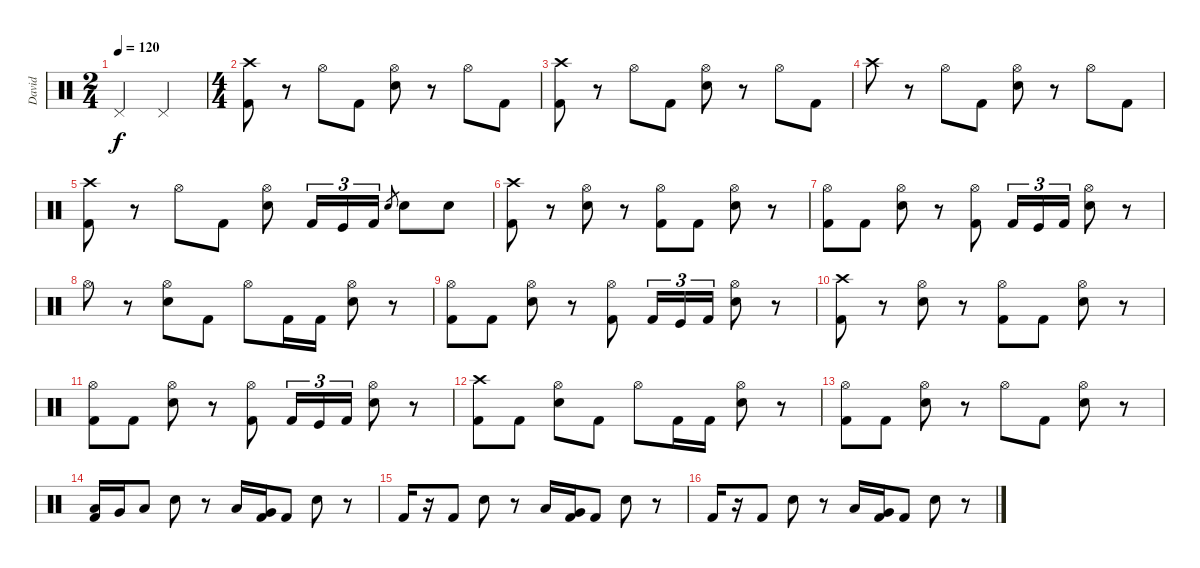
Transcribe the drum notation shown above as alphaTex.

\track ("David" "David") {instrument percussion}
\staff {score}
\articulation defaults
\ts (2 4)
\tempo 120
\clef neutral
\ks c "Pedal Hi-Hat (hit)".4{dy f} "Pedal Hi-Hat (hit)".4
|
\ts (4 4)
("Crash high (hit)" "Kick (hit) 2").8 r.8 "Hi-Hat (open)".8 "Kick (hit) 2".8 ("Hi-Hat (open)" "Snare (hit) 2").8 r.8 "Hi-Hat (open)".8 "Kick (hit) 2".8 |
("Crash high (hit)" "Kick (hit) 2").8 r.8 "Hi-Hat (open)".8 "Kick (hit) 2".8 ("Hi-Hat (open)" "Snare (hit) 2").8 r.8 "Hi-Hat (open)".8 "Kick (hit) 2".8 |
"Crash high (hit)".8 r.8 "Hi-Hat (open)".8 "Kick (hit) 2".8 ("Hi-Hat (open)" "Snare (hit) 2").8 r.8 "Hi-Hat (open)".8 "Kick (hit) 2".8 |
("Crash high (hit)" "Kick (hit) 2").8 r.8 "Hi-Hat (open)".8 "Kick (hit) 2".8 ("Hi-Hat (open)" "Snare (hit) 2").8 "Kick (hit) 2".16{tu (3 2)} "Kick (hit)".16{tu (3 2)} "Kick (hit) 2".16{tu (3 2)} "Snare (hit) 2".8{gr} "Snare (hit) 2".8 "Snare (hit) 2".8 |
("Crash high (hit)" "Kick (hit) 2").8 r.8 ("Hi-Hat (open)" "Snare (hit) 2").8 r.8 ("Hi-Hat (open)" "Kick (hit) 2").8 "Kick (hit) 2".8 ("Hi-Hat (open)" "Snare (hit) 2").8 r.8 |
("Hi-Hat (open)" "Kick (hit) 2").8 "Kick (hit) 2".8 ("Hi-Hat (open)" "Snare (hit) 2").8 r.8 ("Hi-Hat (open)" "Kick (hit) 2").8 "Kick (hit) 2".16{tu (3 2)} "Kick (hit)".16{tu (3 2)} "Kick (hit) 2".16{tu (3 2)} ("Hi-Hat (open)" "Snare (hit) 2").8 r.8 |
"Hi-Hat (open)".8 r.8 ("Hi-Hat (open)" "Snare (hit) 2").8 "Kick (hit) 2".8 "Hi-Hat (open)".8 "Kick (hit) 2".16 "Kick (hit) 2".16 ("Hi-Hat (open)" "Snare (hit) 2").8 r.8 |
("Hi-Hat (open)" "Kick (hit) 2").8 "Kick (hit) 2".8 ("Hi-Hat (open)" "Snare (hit) 2").8 r.8 ("Hi-Hat (open)" "Kick (hit) 2").8 "Kick (hit) 2".16{tu (3 2)} "Kick (hit)".16{tu (3 2)} "Kick (hit) 2".16{tu (3 2)} ("Hi-Hat (open)" "Snare (hit) 2").8 r.8 |
("Crash high (hit)" "Kick (hit) 2").8 r.8 ("Hi-Hat (open)" "Snare (hit) 2").8 r.8 ("Hi-Hat (open)" "Kick (hit) 2").8 "Kick (hit) 2".8 ("Hi-Hat (open)" "Snare (hit) 2").8 r.8 |
("Hi-Hat (open)" "Kick (hit) 2").8 "Kick (hit) 2".8 ("Hi-Hat (open)" "Snare (hit) 2").8 r.8 ("Hi-Hat (open)" "Kick (hit) 2").8 "Kick (hit) 2".16{tu (3 2)} "Kick (hit)".16{tu (3 2)} "Kick (hit) 2".16{tu (3 2)} ("Hi-Hat (open)" "Snare (hit) 2").8 r.8 |
("Crash high (hit)" "Kick (hit) 2").8 "Kick (hit) 2".8 ("Hi-Hat (open)" "Snare (hit) 2").8 "Kick (hit) 2".8 "Hi-Hat (open)".8 "Kick (hit) 2".16 "Kick (hit) 2".16 ("Hi-Hat (open)" "Snare (hit) 2").8 r.8 |
("Hi-Hat (open)" "Kick (hit) 2").8 "Kick (hit) 2".8 ("Hi-Hat (open)" "Snare (hit) 2").8 r.8 "Hi-Hat (open)".8 "Kick (hit) 2".8 ("Hi-Hat (open)" "Snare (hit) 2").8 r.8 |
("Low Tom (hit)" "Kick (hit) 2").16 "Very Low Tom (hit)".16 "Low Tom (hit)".8 "Snare (hit) 2".8 r.8 "Low Tom (hit)".16 ("Very Low Tom (hit)" "Kick (hit) 2").16 "Kick (hit) 2".8 "Snare (hit) 2".8 r.8 |
"Kick (hit) 2".16 r.16 "Kick (hit) 2".8 "Snare (hit) 2".8 r.8 "Low Tom (hit)".16 ("Very Low Tom (hit)" "Kick (hit) 2").16 "Kick (hit) 2".8 "Snare (hit) 2".8 r.8 |
"Kick (hit) 2".16 r.16 "Kick (hit) 2".8 "Snare (hit) 2".8 r.8 "Low Tom (hit)".16 ("Very Low Tom (hit)" "Kick (hit) 2").16 "Kick (hit) 2".8 "Snare (hit) 2".8 r.8
